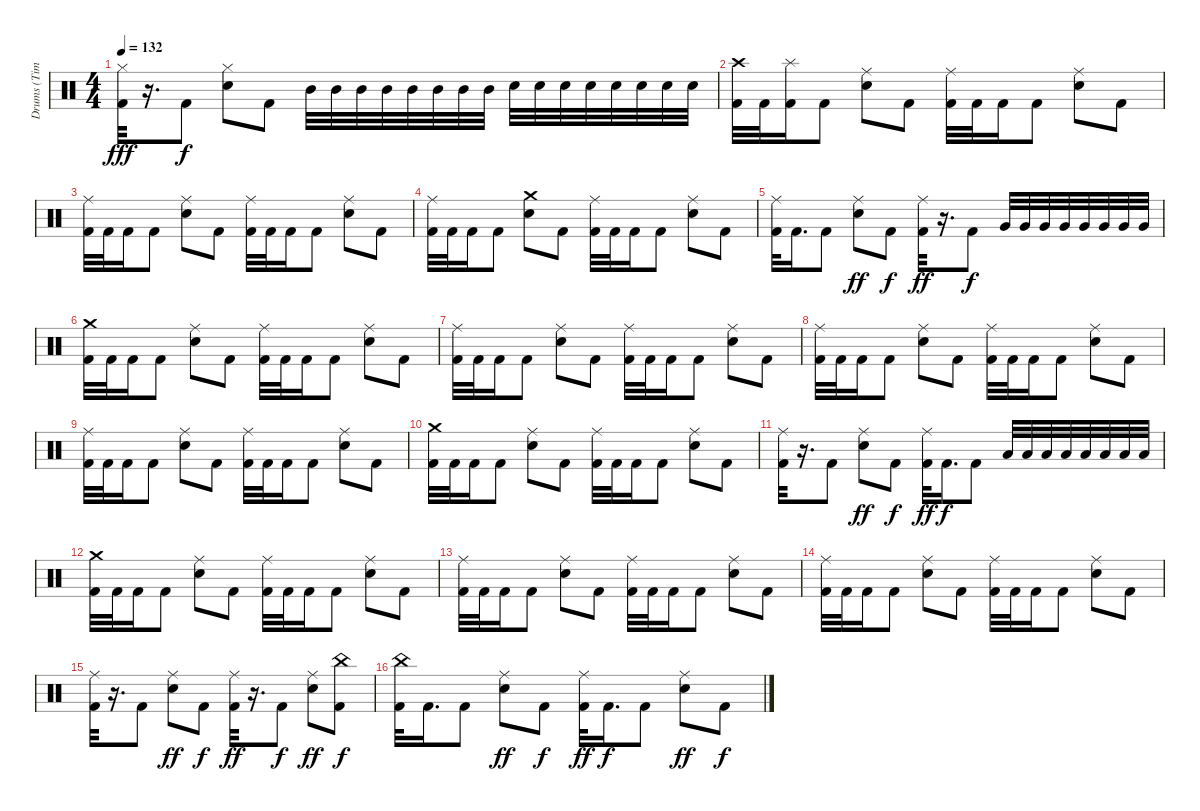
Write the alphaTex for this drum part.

\track ("Drums (Tim Alexander)" "Drums (Tim") {instrument percussion}
\staff {score}
\articulation defaults
\ts (4 4)
\tempo 132
\clef neutral
\ks c
("Hi-Hat (closed)" "Kick (hit) 2").32{dy fff} r.16{d} "Kick (hit) 2".8{dy f} ("Hi-Hat (closed)" "Snare (hit) 2").8 "Kick (hit) 2".8 "Mid Tom (hit)".32 "Mid Tom (hit)".32 "Mid Tom (hit)".32 "Mid Tom (hit)".32 "Mid Tom (hit)".32 "Mid Tom (hit)".32 "Mid Tom (hit)".32 "Mid Tom (hit)".32 "Electric Snare (hit)".32 "Electric Snare (hit)".32 "Electric Snare (hit)".32 "Electric Snare (hit)".32 "Electric Snare (hit)".32 "Electric Snare (hit)".32 "Electric Snare (hit)".32 "Electric Snare (hit)".32 |
("Crash high (hit)" "Kick (hit) 2").32 "Kick (hit) 2".32 ("Splash (hit)" "Kick (hit) 2").16 "Kick (hit) 2".8 ("Ride (middle)" "Snare (hit) 2").8 "Kick (hit) 2".8 ("Ride (middle)" "Kick (hit) 2").32 "Kick (hit) 2".32 "Kick (hit) 2".16 "Kick (hit) 2".8 ("Ride (middle)" "Snare (hit) 2").8 "Kick (hit) 2".8 |
("Ride (middle)" "Kick (hit) 2").32 "Kick (hit) 2".32 "Kick (hit) 2".16 "Kick (hit) 2".8 ("Ride (middle)" "Snare (hit) 2").8 "Kick (hit) 2".8 ("Ride (middle)" "Kick (hit) 2").32 "Kick (hit) 2".32 "Kick (hit) 2".16 "Kick (hit) 2".8 ("Ride (middle)" "Snare (hit) 2").8 "Kick (hit) 2".8 |
("Ride (middle)" "Kick (hit) 2").32 "Kick (hit) 2".32 "Kick (hit) 2".16 "Kick (hit) 2".8 ("Crash medium (hit)" "Snare (hit) 2").8 "Kick (hit) 2".8 ("Ride (middle)" "Kick (hit) 2").32 "Kick (hit) 2".32 "Kick (hit) 2".16 "Kick (hit) 2".8 ("Ride (middle)" "Snare (hit) 2").8 "Kick (hit) 2".8 |
("Ride (middle)" "Kick (hit) 2").32 "Kick (hit) 2".16{d} "Kick (hit) 2".8 ("Ride (middle)" "Snare (hit) 2").8{dy ff} "Kick (hit) 2".8{dy f} ("Ride (middle)" "Kick (hit) 2").32{dy ff} r.16{d} "Kick (hit) 2".8{dy f} "Very Low Tom (hit)".32 "Very Low Tom (hit)".32 "Very Low Tom (hit)".32 "Very Low Tom (hit)".32 "Very Low Tom (hit)".32 "Very Low Tom (hit)".32 "Very Low Tom (hit)".32 "Very Low Tom (hit)".32 |
("Crash medium (hit)" "Kick (hit) 2").32 "Kick (hit) 2".32 "Kick (hit) 2".16 "Kick (hit) 2".8 ("Ride (middle)" "Snare (hit) 2").8 "Kick (hit) 2".8 ("Ride (middle)" "Kick (hit) 2").32 "Kick (hit) 2".32 "Kick (hit) 2".16 "Kick (hit) 2".8 ("Ride (middle)" "Snare (hit) 2").8 "Kick (hit) 2".8 |
("Ride (middle)" "Kick (hit) 2").32 "Kick (hit) 2".32 "Kick (hit) 2".16 "Kick (hit) 2".8 ("Ride (middle)" "Snare (hit) 2").8 "Kick (hit) 2".8 ("Ride (middle)" "Kick (hit) 2").32 "Kick (hit) 2".32 "Kick (hit) 2".16 "Kick (hit) 2".8 ("Ride (middle)" "Snare (hit) 2").8 "Kick (hit) 2".8 |
("Ride (middle)" "Kick (hit) 2").32 "Kick (hit) 2".32 "Kick (hit) 2".16 "Kick (hit) 2".8 ("Ride (middle)" "Snare (hit) 2").8 "Kick (hit) 2".8 ("Ride (middle)" "Kick (hit) 2").32 "Kick (hit) 2".32 "Kick (hit) 2".16 "Kick (hit) 2".8 ("Ride (middle)" "Snare (hit) 2").8 "Kick (hit) 2".8 |
("Ride (middle)" "Kick (hit) 2").32 "Kick (hit) 2".32 "Kick (hit) 2".16 "Kick (hit) 2".8 ("Ride (middle)" "Snare (hit) 2").8 "Kick (hit) 2".8 ("Ride (middle)" "Kick (hit) 2").32 "Kick (hit) 2".32 "Kick (hit) 2".16 "Kick (hit) 2".8 ("Ride (middle)" "Snare (hit) 2").8 "Kick (hit) 2".8 |
("Crash medium (hit)" "Kick (hit) 2").32 "Kick (hit) 2".32 "Kick (hit) 2".16 "Kick (hit) 2".8 ("Ride (middle)" "Snare (hit) 2").8 "Kick (hit) 2".8 ("Ride (middle)" "Kick (hit) 2").32 "Kick (hit) 2".32 "Kick (hit) 2".16 "Kick (hit) 2".8 ("Ride (middle)" "Snare (hit) 2").8 "Kick (hit) 2".8 |
("Ride (middle)" "Kick (hit) 2").32 r.16{d} "Kick (hit) 2".8 ("Ride (middle)" "Snare (hit) 2").8{dy ff} "Kick (hit) 2".8{dy f} ("Ride (middle)" "Kick (hit) 2").32{dy ff} "Kick (hit) 2".16{d dy f} "Kick (hit) 2".8 "Low Tom (hit)".32 "Low Tom (hit)".32 "Low Tom (hit)".32 "Low Tom (hit)".32 "Low Tom (hit)".32 "Low Tom (hit)".32 "Low Tom (hit)".32 "Low Tom (hit)".32 |
("Crash medium (hit)" "Kick (hit) 2").32 "Kick (hit) 2".32 "Kick (hit) 2".16 "Kick (hit) 2".8 ("Ride (middle)" "Snare (hit) 2").8 "Kick (hit) 2".8 ("Ride (middle)" "Kick (hit) 2").32 "Kick (hit) 2".32 "Kick (hit) 2".16 "Kick (hit) 2".8 ("Ride (middle)" "Snare (hit) 2").8 "Kick (hit) 2".8 |
("Ride (middle)" "Kick (hit) 2").32 "Kick (hit) 2".32 "Kick (hit) 2".16 "Kick (hit) 2".8 ("Ride (middle)" "Snare (hit) 2").8 "Kick (hit) 2".8 ("Ride (middle)" "Kick (hit) 2").32 "Kick (hit) 2".32 "Kick (hit) 2".16 "Kick (hit) 2".8 ("Ride (middle)" "Snare (hit) 2").8 "Kick (hit) 2".8 |
("Ride (middle)" "Kick (hit) 2").32 "Kick (hit) 2".32 "Kick (hit) 2".16 "Kick (hit) 2".8 ("Ride (middle)" "Snare (hit) 2").8 "Kick (hit) 2".8 ("Ride (middle)" "Kick (hit) 2").32 "Kick (hit) 2".32 "Kick (hit) 2".16 "Kick (hit) 2".8 ("Ride (middle)" "Snare (hit) 2").8 "Kick (hit) 2".8 |
("Ride (middle)" "Kick (hit) 2").32 r.16{d} "Kick (hit) 2".8 ("Ride (middle)" "Snare (hit) 2").8{dy ff} "Kick (hit) 2".8{dy f} ("Ride (middle)" "Kick (hit) 2").32{dy ff} r.16{d} "Kick (hit) 2".8{dy f} ("Ride (middle)" "Snare (hit) 2").8{dy ff} ("China (hit)" "Kick (hit) 2").8{dy f} |
("China (hit)" "Kick (hit) 2").32 "Kick (hit) 2".16{d} "Kick (hit) 2".8 ("Ride (middle)" "Snare (hit) 2").8{dy ff} "Kick (hit) 2".8{dy f} ("Ride (middle)" "Kick (hit) 2").32{dy ff} "Kick (hit) 2".16{d dy f} "Kick (hit) 2".8 ("Ride (middle)" "Snare (hit) 2").8{dy ff} "Kick (hit) 2".8{dy f}
